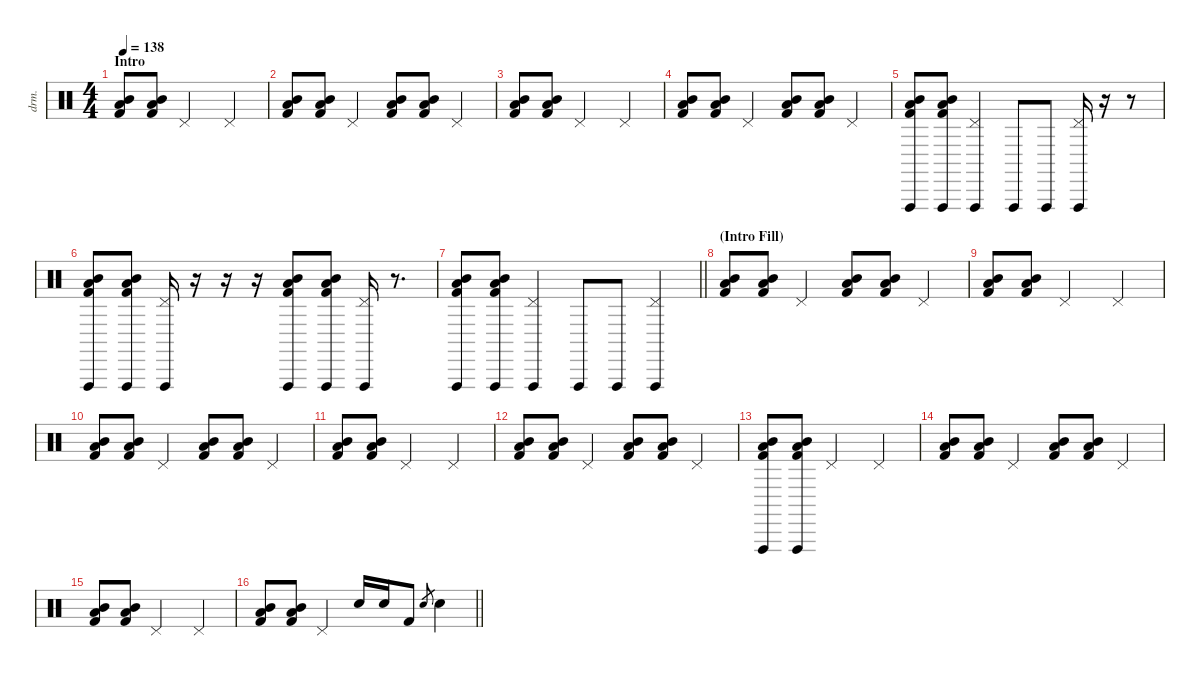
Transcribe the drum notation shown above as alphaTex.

\defaultSystemsLayout 4
\hideDynamics
\bracketExtendMode nobrackets
\otherSystemsTrackNameOrientation horizontal
\track ("Lee Kerslake" "drm.") {instrument percussion}
\staff {score}
\articulation defaults
\ts (4 4)
\beaming (8 2 2 2 2)
\section ("" "Intro")
\tempo 138
\clef neutral
\ks c
("Mid Tom (hit)" "Low Tom (hit)" "Kick (hit) 2").8{dy f beam Up} ("Mid Tom (hit)" "Low Tom (hit)" "Kick (hit) 2").8{beam Up} "Pedal Hi-Hat (hit)".2{beam Up} "Pedal Hi-Hat (hit)".4{beam Up} |
("Mid Tom (hit)" "Low Tom (hit)" "Kick (hit) 2").8{beam Up} ("Mid Tom (hit)" "Low Tom (hit)" "Kick (hit) 2").8{beam Up} "Pedal Hi-Hat (hit)".4{beam Up} ("Mid Tom (hit)" "Low Tom (hit)" "Kick (hit) 2").8{beam Up} ("Mid Tom (hit)" "Low Tom (hit)" "Kick (hit) 2").8{beam Up} "Pedal Hi-Hat (hit)".4{beam Up} |
("Mid Tom (hit)" "Low Tom (hit)" "Kick (hit) 2").8{beam Up} ("Mid Tom (hit)" "Low Tom (hit)" "Kick (hit) 2").8{beam Up} "Pedal Hi-Hat (hit)".2{beam Up} "Pedal Hi-Hat (hit)".4{beam Up} |
("Mid Tom (hit)" "Low Tom (hit)" "Kick (hit) 2").8{beam Up} ("Mid Tom (hit)" "Low Tom (hit)" "Kick (hit) 2").8{beam Up} "Pedal Hi-Hat (hit)".4{beam Up} ("Mid Tom (hit)" "Low Tom (hit)" "Kick (hit) 2").8{beam Up} ("Mid Tom (hit)" "Low Tom (hit)" "Kick (hit) 2").8{beam Up} "Pedal Hi-Hat (hit)".4{beam Up} |
("Mid Tom (hit)" "Low Tom (hit)" "Vibraslap (hit)" "Kick (hit) 2").8{beam Up} ("Mid Tom (hit)" "Low Tom (hit)" "Vibraslap (hit)" "Kick (hit) 2").8{beam Up} ("Pedal Hi-Hat (hit)" "Vibraslap (hit)").4{beam Up} "Vibraslap (hit)".8{dy ff beam Up} "Vibraslap (hit)".8{beam Up} ("Pedal Hi-Hat (hit)" "Vibraslap (hit)").16{dy f beam Up} r.16{beam Up} r.8{beam Up} |
("Mid Tom (hit)" "Low Tom (hit)" "Vibraslap (hit)" "Kick (hit) 2").8{beam Up} ("Mid Tom (hit)" "Low Tom (hit)" "Vibraslap (hit)" "Kick (hit) 2").8{beam Up} ("Pedal Hi-Hat (hit)" "Vibraslap (hit)").16{beam Up} r.16{beam Up} r.16{beam Up} r.16{beam Up} ("Mid Tom (hit)" "Low Tom (hit)" "Vibraslap (hit)" "Kick (hit) 2").8{beam Up} ("Mid Tom (hit)" "Low Tom (hit)" "Vibraslap (hit)" "Kick (hit) 2").8{beam Up} ("Pedal Hi-Hat (hit)" "Vibraslap (hit)").16{beam Up} r.8{d beam Up} |
\barLineRight lightlight
("Mid Tom (hit)" "Low Tom (hit)" "Vibraslap (hit)" "Kick (hit) 2").8{beam Up} ("Mid Tom (hit)" "Low Tom (hit)" "Vibraslap (hit)" "Kick (hit) 2").8{beam Up} ("Pedal Hi-Hat (hit)" "Vibraslap (hit)").4{beam Up} "Vibraslap (hit)".8{dy p beam Up} "Vibraslap (hit)".8{beam Up} ("Pedal Hi-Hat (hit)" "Vibraslap (hit)").4{dy f beam Up} |
\section ("" "(Intro Fill)")
("Mid Tom (hit)" "Low Tom (hit)" "Kick (hit) 2").8{beam Up} ("Mid Tom (hit)" "Low Tom (hit)" "Kick (hit) 2").8{beam Up} "Pedal Hi-Hat (hit)".4{beam Up} ("Mid Tom (hit)" "Low Tom (hit)" "Kick (hit) 2").8{beam Up} ("Mid Tom (hit)" "Low Tom (hit)" "Kick (hit) 2").8{beam Up} "Pedal Hi-Hat (hit)".4{beam Up} |
("Mid Tom (hit)" "Low Tom (hit)" "Kick (hit) 2").8{beam Up} ("Mid Tom (hit)" "Low Tom (hit)" "Kick (hit) 2").8{beam Up} "Pedal Hi-Hat (hit)".2{beam Up} "Pedal Hi-Hat (hit)".4{beam Up} |
("Mid Tom (hit)" "Low Tom (hit)" "Kick (hit) 2").8{beam Up} ("Mid Tom (hit)" "Low Tom (hit)" "Kick (hit) 2").8{beam Up} "Pedal Hi-Hat (hit)".4{beam Up} ("Mid Tom (hit)" "Low Tom (hit)" "Kick (hit) 2").8{beam Up} ("Mid Tom (hit)" "Low Tom (hit)" "Kick (hit) 2").8{beam Up} "Pedal Hi-Hat (hit)".4{beam Up} |
("Mid Tom (hit)" "Low Tom (hit)" "Kick (hit) 2").8{beam Up} ("Mid Tom (hit)" "Low Tom (hit)" "Kick (hit) 2").8{beam Up} "Pedal Hi-Hat (hit)".2{beam Up} "Pedal Hi-Hat (hit)".4{beam Up} |
("Mid Tom (hit)" "Low Tom (hit)" "Kick (hit) 2").8{beam Up} ("Mid Tom (hit)" "Low Tom (hit)" "Kick (hit) 2").8{beam Up} "Pedal Hi-Hat (hit)".4{beam Up} ("Mid Tom (hit)" "Low Tom (hit)" "Kick (hit) 2").8{beam Up} ("Mid Tom (hit)" "Low Tom (hit)" "Kick (hit) 2").8{beam Up} "Pedal Hi-Hat (hit)".4{beam Up} |
("Mid Tom (hit)" "Low Tom (hit)" "Vibraslap (hit)" "Kick (hit) 2").8{beam Up} ("Mid Tom (hit)" "Low Tom (hit)" "Vibraslap (hit)" "Kick (hit) 2").8{beam Up} "Pedal Hi-Hat (hit)".2{beam Up} "Pedal Hi-Hat (hit)".4{beam Up} |
("Mid Tom (hit)" "Low Tom (hit)" "Kick (hit) 2").8{beam Up} ("Mid Tom (hit)" "Low Tom (hit)" "Kick (hit) 2").8{beam Up} "Pedal Hi-Hat (hit)".4{beam Up} ("Mid Tom (hit)" "Low Tom (hit)" "Kick (hit) 2").8{beam Up} ("Mid Tom (hit)" "Low Tom (hit)" "Kick (hit) 2").8{beam Up} "Pedal Hi-Hat (hit)".4{beam Up} |
("Mid Tom (hit)" "Low Tom (hit)" "Kick (hit) 2").8{beam Up} ("Mid Tom (hit)" "Low Tom (hit)" "Kick (hit) 2").8{beam Up} "Pedal Hi-Hat (hit)".2{beam Up} "Pedal Hi-Hat (hit)".4{beam Up} |
\barLineRight lightlight
("Mid Tom (hit)" "Low Tom (hit)" "Kick (hit) 2").8{beam Up} ("Mid Tom (hit)" "Low Tom (hit)" "Kick (hit) 2").8{beam Up} "Pedal Hi-Hat (hit)".4{beam Up} "Snare (hit) 2".16{beam Up} "Snare (hit) 2".16{beam Up} "Kick (hit) 2".8{beam Up} "Snare (hit) 2".8{gr dy mf beam Up} "Snare (hit) 2".4{dy f beam Down}
